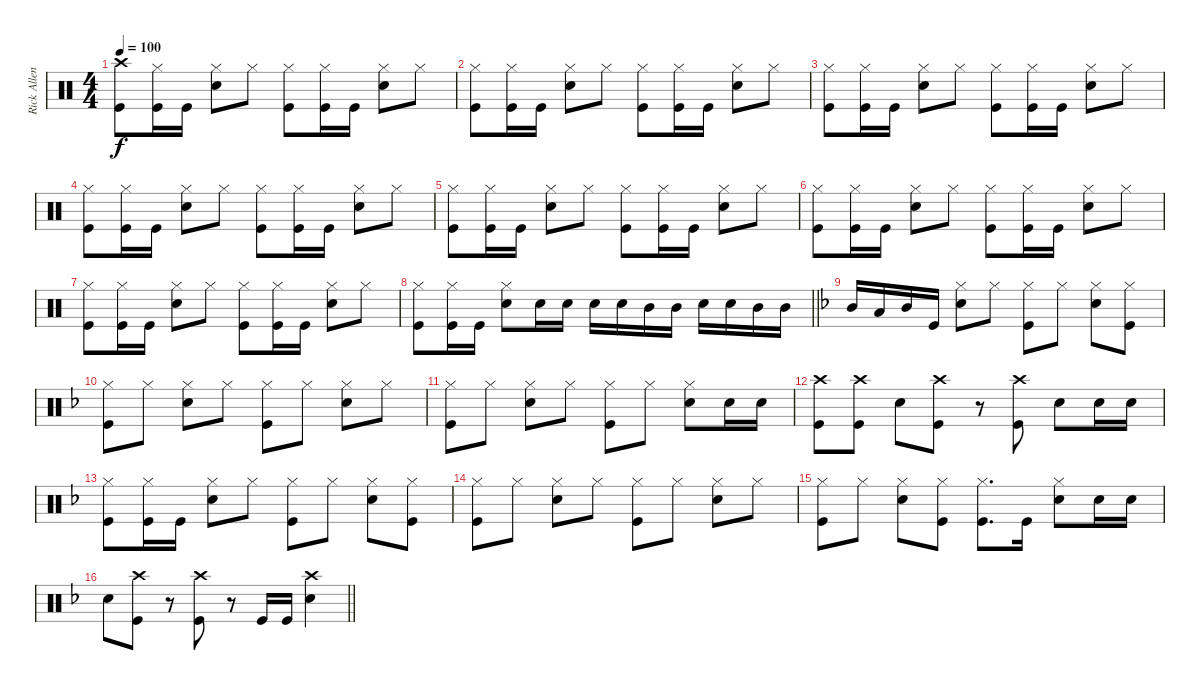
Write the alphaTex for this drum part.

\track ("Rick Allen" "Rick Allen") {instrument percussion}
\staff {score}
\articulation defaults
\ts (4 4)
\tempo 100
\clef neutral
\ks aminor
("Crash high (hit)" "Kick (hit)").8{dy f} ("Hi-Hat (closed)" "Kick (hit)").16 "Kick (hit)".16 ("Hi-Hat (closed)" "Snare (hit) 2").8 "Hi-Hat (closed)".8 ("Hi-Hat (closed)" "Kick (hit)").8 ("Hi-Hat (closed)" "Kick (hit)").16 "Kick (hit)".16 ("Hi-Hat (closed)" "Snare (hit) 2").8 "Hi-Hat (closed)".8 |
("Hi-Hat (closed)" "Kick (hit)").8 ("Hi-Hat (closed)" "Kick (hit)").16 "Kick (hit)".16 ("Hi-Hat (closed)" "Snare (hit) 2").8 "Hi-Hat (closed)".8 ("Hi-Hat (closed)" "Kick (hit)").8 ("Hi-Hat (closed)" "Kick (hit)").16 "Kick (hit)".16 ("Hi-Hat (closed)" "Snare (hit) 2").8 "Hi-Hat (closed)".8 |
("Hi-Hat (closed)" "Kick (hit)").8 ("Hi-Hat (closed)" "Kick (hit)").16 "Kick (hit)".16 ("Hi-Hat (closed)" "Snare (hit) 2").8 "Hi-Hat (closed)".8 ("Hi-Hat (closed)" "Kick (hit)").8 ("Hi-Hat (closed)" "Kick (hit)").16 "Kick (hit)".16 ("Hi-Hat (closed)" "Snare (hit) 2").8 "Hi-Hat (closed)".8 |
("Hi-Hat (closed)" "Kick (hit)").8 ("Hi-Hat (closed)" "Kick (hit)").16 "Kick (hit)".16 ("Hi-Hat (closed)" "Snare (hit) 2").8 "Hi-Hat (closed)".8 ("Hi-Hat (closed)" "Kick (hit)").8 ("Hi-Hat (closed)" "Kick (hit)").16 "Kick (hit)".16 ("Hi-Hat (closed)" "Snare (hit) 2").8 "Hi-Hat (closed)".8 |
("Hi-Hat (closed)" "Kick (hit)").8 ("Hi-Hat (closed)" "Kick (hit)").16 "Kick (hit)".16 ("Hi-Hat (closed)" "Snare (hit) 2").8 "Hi-Hat (closed)".8 ("Hi-Hat (closed)" "Kick (hit)").8 ("Hi-Hat (closed)" "Kick (hit)").16 "Kick (hit)".16 ("Hi-Hat (closed)" "Snare (hit) 2").8 "Hi-Hat (closed)".8 |
("Hi-Hat (closed)" "Kick (hit)").8 ("Hi-Hat (closed)" "Kick (hit)").16 "Kick (hit)".16 ("Hi-Hat (closed)" "Snare (hit) 2").8 "Hi-Hat (closed)".8 ("Hi-Hat (closed)" "Kick (hit)").8 ("Hi-Hat (closed)" "Kick (hit)").16 "Kick (hit)".16 ("Hi-Hat (closed)" "Snare (hit) 2").8 "Hi-Hat (closed)".8 |
("Hi-Hat (closed)" "Kick (hit)").8 ("Hi-Hat (closed)" "Kick (hit)").16 "Kick (hit)".16 ("Hi-Hat (closed)" "Snare (hit) 2").8 "Hi-Hat (closed)".8 ("Hi-Hat (closed)" "Kick (hit)").8 ("Hi-Hat (closed)" "Kick (hit)").16 "Kick (hit)".16 ("Hi-Hat (closed)" "Snare (hit) 2").8 "Hi-Hat (closed)".8 |
\barLineRight lightlight
("Hi-Hat (closed)" "Kick (hit)").8 ("Hi-Hat (closed)" "Kick (hit)").16 "Kick (hit)".16 ("Hi-Hat (closed)" "Snare (hit) 2").8 "Snare (hit) 2".16 "Snare (hit) 2".16 "Snare (hit) 2".16 "Snare (hit) 2".16 "Mid Tom (hit)".16 "Mid Tom (hit)".16 "Snare (hit) 2".16 "Snare (hit) 2".16 "Mid Tom (hit)".16 "Mid Tom (hit)".16 |
\ks dminor "Mid Tom (hit)".16 "Low Tom (hit)".16 "Mid Tom (hit)".16 "Kick (hit)".16
("Hi-Hat (closed)" "Snare (hit) 2").8 "Hi-Hat (closed)".8 ("Hi-Hat (closed)" "Kick (hit)").8 "Hi-Hat (closed)".8 ("Hi-Hat (closed)" "Snare (hit) 2").8 ("Hi-Hat (closed)" "Kick (hit)").8 |
("Hi-Hat (closed)" "Kick (hit)").8 "Hi-Hat (closed)".8 ("Hi-Hat (closed)" "Snare (hit) 2").8 "Hi-Hat (closed)".8 ("Hi-Hat (closed)" "Kick (hit)").8 "Hi-Hat (closed)".8 ("Hi-Hat (closed)" "Snare (hit) 2").8 "Hi-Hat (closed)".8 |
("Hi-Hat (closed)" "Kick (hit)").8 "Hi-Hat (closed)".8 ("Hi-Hat (closed)" "Snare (hit) 2").8 "Hi-Hat (closed)".8 ("Hi-Hat (closed)" "Kick (hit)").8 "Hi-Hat (closed)".8 ("Hi-Hat (closed)" "Snare (hit) 2").8 "Snare (hit) 2".16 "Snare (hit) 2".16 |
("Crash high (hit)" "Kick (hit)").8 ("Crash high (hit)" "Kick (hit)").8 "Snare (hit) 2".8 ("Crash high (hit)" "Kick (hit)").8 r.8 ("Crash high (hit)" "Kick (hit)").8 "Snare (hit) 2".8 "Snare (hit) 2".16 "Snare (hit) 2".16 |
("Hi-Hat (closed)" "Kick (hit)").8 ("Hi-Hat (closed)" "Kick (hit)").16 "Kick (hit)".16 ("Hi-Hat (closed)" "Snare (hit) 2").8 "Hi-Hat (closed)".8 ("Hi-Hat (closed)" "Kick (hit)").8 "Hi-Hat (closed)".8 ("Hi-Hat (closed)" "Snare (hit) 2").8 ("Hi-Hat (closed)" "Kick (hit)").8 |
("Hi-Hat (closed)" "Kick (hit)").8 "Hi-Hat (closed)".8 ("Hi-Hat (closed)" "Snare (hit) 2").8 "Hi-Hat (closed)".8 ("Hi-Hat (closed)" "Kick (hit)").8 "Hi-Hat (closed)".8 ("Hi-Hat (closed)" "Snare (hit) 2").8 "Hi-Hat (closed)".8 |
("Hi-Hat (closed)" "Kick (hit)").8 "Hi-Hat (closed)".8 ("Hi-Hat (closed)" "Snare (hit) 2").8 ("Hi-Hat (closed)" "Kick (hit)").8 ("Hi-Hat (closed)" "Kick (hit)").8{d} "Kick (hit)".16 ("Hi-Hat (closed)" "Snare (hit) 2").8 "Snare (hit) 2".16 "Snare (hit) 2".16 |
\barLineRight lightlight "Snare (hit) 2".8
("Crash high (hit)" "Kick (hit)").8 r.8 ("Crash high (hit)" "Kick (hit)").8 r.8 "Kick (hit)".16 "Kick (hit)".16 ("Crash high (hit)" "Snare (hit) 2").4
